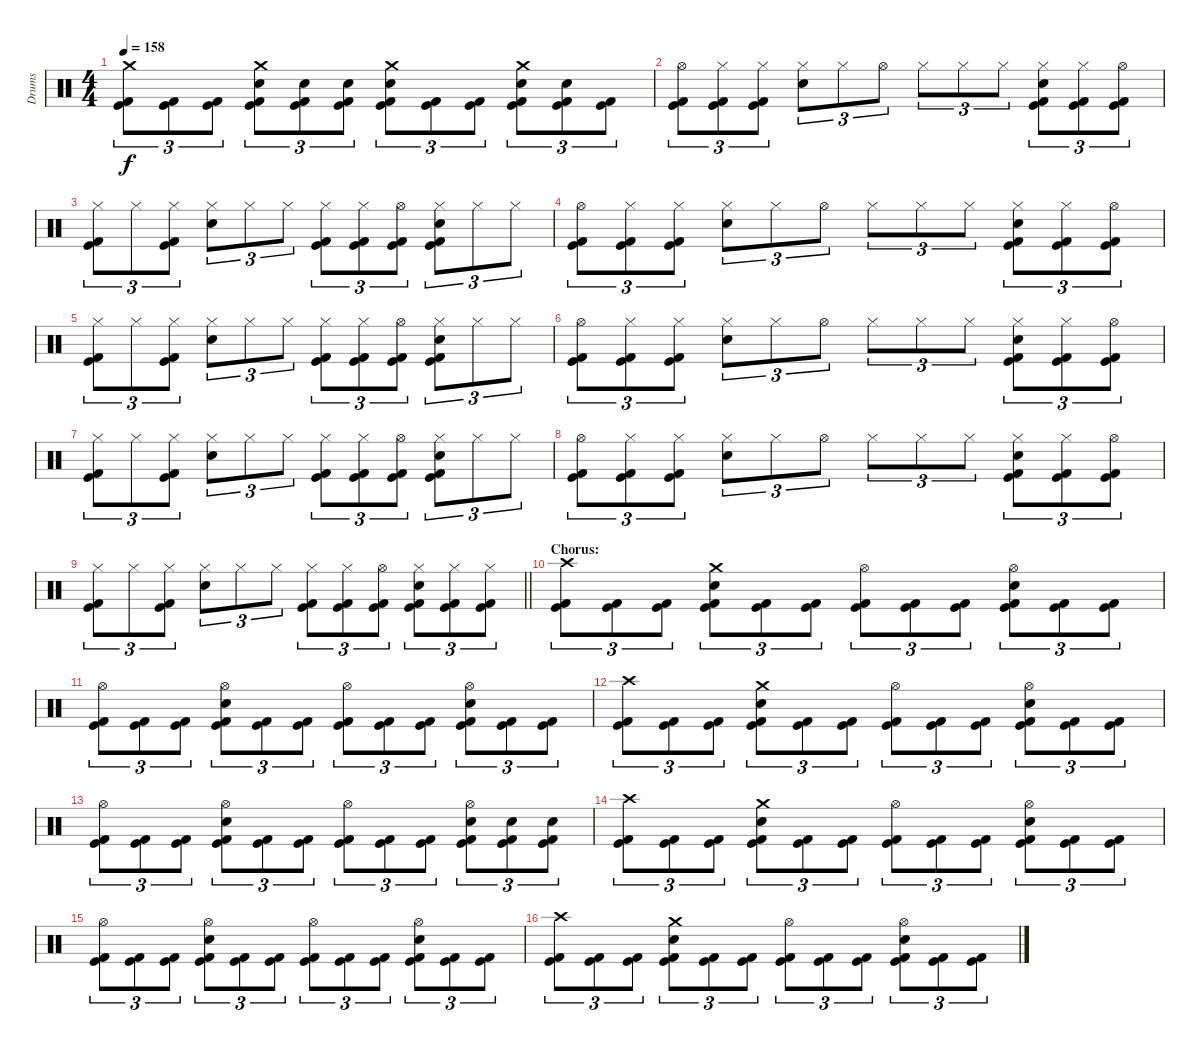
\track ("Drums" "Drums") {instrument percussion}
\staff {score}
\articulation defaults
\ts (4 4)
\tempo 158
\clef neutral
\ks c
("Crash medium (hit)" "Kick (hit)" "Kick (hit) 2").8{tu (3 2) dy f} ("Kick (hit)" "Kick (hit) 2").8{tu (3 2)} ("Kick (hit)" "Kick (hit) 2").8{tu (3 2)} ("Crash medium (hit)" "Snare (hit) 2" "Kick (hit)" "Kick (hit) 2").8{tu (3 2)} ("Snare (hit) 2" "Kick (hit)" "Kick (hit) 2").8{tu (3 2)} ("Snare (hit) 2" "Kick (hit)" "Kick (hit) 2").8{tu (3 2)} ("Crash medium (hit)" "Snare (hit) 2" "Kick (hit)" "Kick (hit) 2").8{tu (3 2)} ("Kick (hit)" "Kick (hit) 2").8{tu (3 2)} ("Kick (hit)" "Kick (hit) 2").8{tu (3 2)} ("Crash medium (hit)" "Snare (hit) 2" "Kick (hit)" "Kick (hit) 2").8{tu (3 2)} ("Snare (hit) 2" "Kick (hit)" "Kick (hit) 2").8{tu (3 2)} ("Kick (hit)" "Kick (hit) 2").8{tu (3 2)} |
("Hi-Hat (open)" "Kick (hit)" "Kick (hit) 2").8{tu (3 2)} ("Hi-Hat (closed)" "Kick (hit)" "Kick (hit) 2").8{tu (3 2)} ("Hi-Hat (closed)" "Kick (hit)" "Kick (hit) 2").8{tu (3 2)} ("Hi-Hat (closed)" "Snare (hit) 2").8{tu (3 2)} "Hi-Hat (closed)".8{tu (3 2)} "Hi-Hat (open)".8{tu (3 2)} "Hi-Hat (closed)".8{tu (3 2)} "Hi-Hat (closed)".8{tu (3 2)} "Hi-Hat (closed)".8{tu (3 2)} ("Hi-Hat (closed)" "Snare (hit) 2" "Kick (hit)" "Kick (hit) 2").8{tu (3 2)} ("Hi-Hat (closed)" "Kick (hit)" "Kick (hit) 2").8{tu (3 2)} ("Hi-Hat (open)" "Kick (hit)" "Kick (hit) 2").8{tu (3 2)} |
("Hi-Hat (closed)" "Kick (hit)" "Kick (hit) 2").8{tu (3 2)} "Hi-Hat (closed)".8{tu (3 2)} ("Hi-Hat (closed)" "Kick (hit)" "Kick (hit) 2").8{tu (3 2)} ("Hi-Hat (closed)" "Snare (hit) 2").8{tu (3 2)} "Hi-Hat (closed)".8{tu (3 2)} "Hi-Hat (closed)".8{tu (3 2)} ("Hi-Hat (closed)" "Kick (hit)" "Kick (hit) 2").8{tu (3 2)} ("Hi-Hat (closed)" "Kick (hit)" "Kick (hit) 2").8{tu (3 2)} ("Hi-Hat (open)" "Kick (hit)" "Kick (hit) 2").8{tu (3 2)} ("Hi-Hat (closed)" "Snare (hit) 2" "Kick (hit)" "Kick (hit) 2").8{tu (3 2)} "Hi-Hat (closed)".8{tu (3 2)} "Hi-Hat (closed)".8{tu (3 2)} |
("Hi-Hat (open)" "Kick (hit)" "Kick (hit) 2").8{tu (3 2)} ("Hi-Hat (closed)" "Kick (hit)" "Kick (hit) 2").8{tu (3 2)} ("Hi-Hat (closed)" "Kick (hit)" "Kick (hit) 2").8{tu (3 2)} ("Hi-Hat (closed)" "Snare (hit) 2").8{tu (3 2)} "Hi-Hat (closed)".8{tu (3 2)} "Hi-Hat (open)".8{tu (3 2)} "Hi-Hat (closed)".8{tu (3 2)} "Hi-Hat (closed)".8{tu (3 2)} "Hi-Hat (closed)".8{tu (3 2)} ("Hi-Hat (closed)" "Snare (hit) 2" "Kick (hit)" "Kick (hit) 2").8{tu (3 2)} ("Hi-Hat (closed)" "Kick (hit)" "Kick (hit) 2").8{tu (3 2)} ("Hi-Hat (open)" "Kick (hit)" "Kick (hit) 2").8{tu (3 2)} |
("Hi-Hat (closed)" "Kick (hit)" "Kick (hit) 2").8{tu (3 2)} "Hi-Hat (closed)".8{tu (3 2)} ("Hi-Hat (closed)" "Kick (hit)" "Kick (hit) 2").8{tu (3 2)} ("Hi-Hat (closed)" "Snare (hit) 2").8{tu (3 2)} "Hi-Hat (closed)".8{tu (3 2)} "Hi-Hat (closed)".8{tu (3 2)} ("Hi-Hat (closed)" "Kick (hit)" "Kick (hit) 2").8{tu (3 2)} ("Hi-Hat (closed)" "Kick (hit)" "Kick (hit) 2").8{tu (3 2)} ("Hi-Hat (open)" "Kick (hit)" "Kick (hit) 2").8{tu (3 2)} ("Hi-Hat (closed)" "Snare (hit) 2" "Kick (hit)" "Kick (hit) 2").8{tu (3 2)} "Hi-Hat (closed)".8{tu (3 2)} "Hi-Hat (closed)".8{tu (3 2)} |
("Hi-Hat (open)" "Kick (hit)" "Kick (hit) 2").8{tu (3 2)} ("Hi-Hat (closed)" "Kick (hit)" "Kick (hit) 2").8{tu (3 2)} ("Hi-Hat (closed)" "Kick (hit)" "Kick (hit) 2").8{tu (3 2)} ("Hi-Hat (closed)" "Snare (hit) 2").8{tu (3 2)} "Hi-Hat (closed)".8{tu (3 2)} "Hi-Hat (open)".8{tu (3 2)} "Hi-Hat (closed)".8{tu (3 2)} "Hi-Hat (closed)".8{tu (3 2)} "Hi-Hat (closed)".8{tu (3 2)} ("Hi-Hat (closed)" "Snare (hit) 2" "Kick (hit)" "Kick (hit) 2").8{tu (3 2)} ("Hi-Hat (closed)" "Kick (hit)" "Kick (hit) 2").8{tu (3 2)} ("Hi-Hat (open)" "Kick (hit)" "Kick (hit) 2").8{tu (3 2)} |
("Hi-Hat (closed)" "Kick (hit)" "Kick (hit) 2").8{tu (3 2)} "Hi-Hat (closed)".8{tu (3 2)} ("Hi-Hat (closed)" "Kick (hit)" "Kick (hit) 2").8{tu (3 2)} ("Hi-Hat (closed)" "Snare (hit) 2").8{tu (3 2)} "Hi-Hat (closed)".8{tu (3 2)} "Hi-Hat (closed)".8{tu (3 2)} ("Hi-Hat (closed)" "Kick (hit)" "Kick (hit) 2").8{tu (3 2)} ("Hi-Hat (closed)" "Kick (hit)" "Kick (hit) 2").8{tu (3 2)} ("Hi-Hat (open)" "Kick (hit)" "Kick (hit) 2").8{tu (3 2)} ("Hi-Hat (closed)" "Snare (hit) 2" "Kick (hit)" "Kick (hit) 2").8{tu (3 2)} "Hi-Hat (closed)".8{tu (3 2)} "Hi-Hat (closed)".8{tu (3 2)} |
("Hi-Hat (open)" "Kick (hit)" "Kick (hit) 2").8{tu (3 2)} ("Hi-Hat (closed)" "Kick (hit)" "Kick (hit) 2").8{tu (3 2)} ("Hi-Hat (closed)" "Kick (hit)" "Kick (hit) 2").8{tu (3 2)} ("Hi-Hat (closed)" "Snare (hit) 2").8{tu (3 2)} "Hi-Hat (closed)".8{tu (3 2)} "Hi-Hat (open)".8{tu (3 2)} "Hi-Hat (closed)".8{tu (3 2)} "Hi-Hat (closed)".8{tu (3 2)} "Hi-Hat (closed)".8{tu (3 2)} ("Hi-Hat (closed)" "Snare (hit) 2" "Kick (hit)" "Kick (hit) 2").8{tu (3 2)} ("Hi-Hat (closed)" "Kick (hit)" "Kick (hit) 2").8{tu (3 2)} ("Hi-Hat (open)" "Kick (hit)" "Kick (hit) 2").8{tu (3 2)} |
\barLineRight lightlight
("Hi-Hat (closed)" "Kick (hit)" "Kick (hit) 2").8{tu (3 2)} "Hi-Hat (closed)".8{tu (3 2)} ("Hi-Hat (closed)" "Kick (hit)" "Kick (hit) 2").8{tu (3 2)} ("Hi-Hat (closed)" "Snare (hit) 2").8{tu (3 2)} "Hi-Hat (closed)".8{tu (3 2)} "Hi-Hat (closed)".8{tu (3 2)} ("Hi-Hat (closed)" "Kick (hit)" "Kick (hit) 2").8{tu (3 2)} ("Hi-Hat (closed)" "Kick (hit)" "Kick (hit) 2").8{tu (3 2)} ("Hi-Hat (open)" "Kick (hit)" "Kick (hit) 2").8{tu (3 2)} ("Hi-Hat (closed)" "Snare (hit) 2" "Kick (hit)" "Kick (hit) 2").8{tu (3 2)} ("Hi-Hat (closed)" "Kick (hit)" "Kick (hit) 2").8{tu (3 2)} ("Hi-Hat (closed)" "Kick (hit)" "Kick (hit) 2").8{tu (3 2)} |
\section ("" "Chorus:")
("Crash high (hit)" "Kick (hit)" "Kick (hit) 2").8{tu (3 2)} ("Kick (hit)" "Kick (hit) 2").8{tu (3 2)} ("Kick (hit)" "Kick (hit) 2").8{tu (3 2)} ("Crash medium (hit)" "Snare (hit) 2" "Kick (hit)" "Kick (hit) 2").8{tu (3 2)} ("Kick (hit)" "Kick (hit) 2").8{tu (3 2)} ("Kick (hit)" "Kick (hit) 2").8{tu (3 2)} ("Hi-Hat (open)" "Kick (hit)" "Kick (hit) 2").8{tu (3 2)} ("Kick (hit)" "Kick (hit) 2").8{tu (3 2)} ("Kick (hit)" "Kick (hit) 2").8{tu (3 2)} ("Hi-Hat (open)" "Snare (hit) 2" "Kick (hit)" "Kick (hit) 2").8{tu (3 2)} ("Kick (hit)" "Kick (hit) 2").8{tu (3 2)} ("Kick (hit)" "Kick (hit) 2").8{tu (3 2)} |
("Hi-Hat (open)" "Kick (hit)" "Kick (hit) 2").8{tu (3 2)} ("Kick (hit)" "Kick (hit) 2").8{tu (3 2)} ("Kick (hit)" "Kick (hit) 2").8{tu (3 2)} ("Hi-Hat (open)" "Snare (hit) 2" "Kick (hit)" "Kick (hit) 2").8{tu (3 2)} ("Kick (hit)" "Kick (hit) 2").8{tu (3 2)} ("Kick (hit)" "Kick (hit) 2").8{tu (3 2)} ("Hi-Hat (open)" "Kick (hit)" "Kick (hit) 2").8{tu (3 2)} ("Kick (hit)" "Kick (hit) 2").8{tu (3 2)} ("Kick (hit)" "Kick (hit) 2").8{tu (3 2)} ("Hi-Hat (open)" "Snare (hit) 2" "Kick (hit)" "Kick (hit) 2").8{tu (3 2)} ("Kick (hit)" "Kick (hit) 2").8{tu (3 2)} ("Kick (hit)" "Kick (hit) 2").8{tu (3 2)} |
("Crash high (hit)" "Kick (hit)" "Kick (hit) 2").8{tu (3 2)} ("Kick (hit)" "Kick (hit) 2").8{tu (3 2)} ("Kick (hit)" "Kick (hit) 2").8{tu (3 2)} ("Crash medium (hit)" "Snare (hit) 2" "Kick (hit)" "Kick (hit) 2").8{tu (3 2)} ("Kick (hit)" "Kick (hit) 2").8{tu (3 2)} ("Kick (hit)" "Kick (hit) 2").8{tu (3 2)} ("Hi-Hat (open)" "Kick (hit)" "Kick (hit) 2").8{tu (3 2)} ("Kick (hit)" "Kick (hit) 2").8{tu (3 2)} ("Kick (hit)" "Kick (hit) 2").8{tu (3 2)} ("Hi-Hat (open)" "Snare (hit) 2" "Kick (hit)" "Kick (hit) 2").8{tu (3 2)} ("Kick (hit)" "Kick (hit) 2").8{tu (3 2)} ("Kick (hit)" "Kick (hit) 2").8{tu (3 2)} |
("Hi-Hat (open)" "Kick (hit)" "Kick (hit) 2").8{tu (3 2)} ("Kick (hit)" "Kick (hit) 2").8{tu (3 2)} ("Kick (hit)" "Kick (hit) 2").8{tu (3 2)} ("Hi-Hat (open)" "Snare (hit) 2" "Kick (hit)" "Kick (hit) 2").8{tu (3 2)} ("Kick (hit)" "Kick (hit) 2").8{tu (3 2)} ("Kick (hit)" "Kick (hit) 2").8{tu (3 2)} ("Hi-Hat (open)" "Kick (hit)" "Kick (hit) 2").8{tu (3 2)} ("Kick (hit)" "Kick (hit) 2").8{tu (3 2)} ("Kick (hit)" "Kick (hit) 2").8{tu (3 2)} ("Hi-Hat (open)" "Snare (hit) 2" "Kick (hit)" "Kick (hit) 2").8{tu (3 2)} ("Snare (hit) 2" "Kick (hit)" "Kick (hit) 2").8{tu (3 2)} ("Snare (hit) 2" "Kick (hit)" "Kick (hit) 2").8{tu (3 2)} |
("Crash high (hit)" "Kick (hit)" "Kick (hit) 2").8{tu (3 2)} ("Kick (hit)" "Kick (hit) 2").8{tu (3 2)} ("Kick (hit)" "Kick (hit) 2").8{tu (3 2)} ("Crash medium (hit)" "Snare (hit) 2" "Kick (hit)" "Kick (hit) 2").8{tu (3 2)} ("Kick (hit)" "Kick (hit) 2").8{tu (3 2)} ("Kick (hit)" "Kick (hit) 2").8{tu (3 2)} ("Hi-Hat (open)" "Kick (hit)" "Kick (hit) 2").8{tu (3 2)} ("Kick (hit)" "Kick (hit) 2").8{tu (3 2)} ("Kick (hit)" "Kick (hit) 2").8{tu (3 2)} ("Hi-Hat (open)" "Snare (hit) 2" "Kick (hit)" "Kick (hit) 2").8{tu (3 2)} ("Kick (hit)" "Kick (hit) 2").8{tu (3 2)} ("Kick (hit)" "Kick (hit) 2").8{tu (3 2)} |
("Hi-Hat (open)" "Kick (hit)" "Kick (hit) 2").8{tu (3 2)} ("Kick (hit)" "Kick (hit) 2").8{tu (3 2)} ("Kick (hit)" "Kick (hit) 2").8{tu (3 2)} ("Hi-Hat (open)" "Snare (hit) 2" "Kick (hit)" "Kick (hit) 2").8{tu (3 2)} ("Kick (hit)" "Kick (hit) 2").8{tu (3 2)} ("Kick (hit)" "Kick (hit) 2").8{tu (3 2)} ("Hi-Hat (open)" "Kick (hit)" "Kick (hit) 2").8{tu (3 2)} ("Kick (hit)" "Kick (hit) 2").8{tu (3 2)} ("Kick (hit)" "Kick (hit) 2").8{tu (3 2)} ("Hi-Hat (open)" "Snare (hit) 2" "Kick (hit)" "Kick (hit) 2").8{tu (3 2)} ("Kick (hit)" "Kick (hit) 2").8{tu (3 2)} ("Kick (hit)" "Kick (hit) 2").8{tu (3 2)} |
("Crash high (hit)" "Kick (hit)" "Kick (hit) 2").8{tu (3 2)} ("Kick (hit)" "Kick (hit) 2").8{tu (3 2)} ("Kick (hit)" "Kick (hit) 2").8{tu (3 2)} ("Crash medium (hit)" "Snare (hit) 2" "Kick (hit)" "Kick (hit) 2").8{tu (3 2)} ("Kick (hit)" "Kick (hit) 2").8{tu (3 2)} ("Kick (hit)" "Kick (hit) 2").8{tu (3 2)} ("Hi-Hat (open)" "Kick (hit)" "Kick (hit) 2").8{tu (3 2)} ("Kick (hit)" "Kick (hit) 2").8{tu (3 2)} ("Kick (hit)" "Kick (hit) 2").8{tu (3 2)} ("Hi-Hat (open)" "Snare (hit) 2" "Kick (hit)" "Kick (hit) 2").8{tu (3 2)} ("Kick (hit)" "Kick (hit) 2").8{tu (3 2)} ("Kick (hit)" "Kick (hit) 2").8{tu (3 2)}
